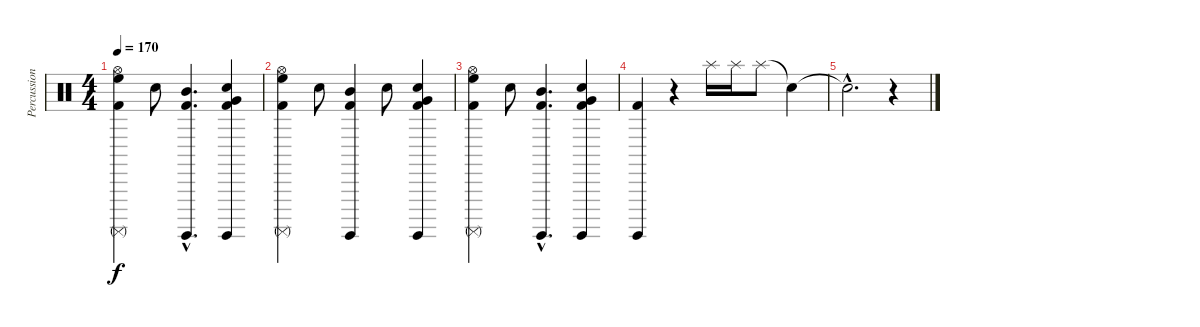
\track ("Percussion" "Percussion") {instrument percussion}
\staff {score}
\articulation defaults
\ts (4 4)
\tempo 170
\clef neutral
\ks c
("Hi-Hat (open)" "High Floor Tom (hit)" "Surdo (mute)" "Kick (hit) 2").4{dy f} "Hand Clap (hit)".8 ("Mid Tom (hit)"{hac} "Surdo (hit)"{hac} "Kick (hit) 2"{hac}).4{d} ("Hand Clap (hit)" "Very Low Tom (hit)" "Surdo (hit)" "Kick (hit) 2").4 |
("Hi-Hat (open)" "High Floor Tom (hit)" "Surdo (mute)" "Kick (hit) 2").4 "Hand Clap (hit)".8 ("Mid Tom (hit)" "Surdo (hit)" "Kick (hit) 2").4 "Hand Clap (hit)".8 ("Hand Clap (hit)" "Very Low Tom (hit)" "Surdo (hit)" "Kick (hit) 2").4 |
("Hi-Hat (open)" "High Floor Tom (hit)" "Surdo (mute)" "Kick (hit) 2").4 "Hand Clap (hit)".8 ("Mid Tom (hit)"{hac} "Surdo (hit)"{hac} "Kick (hit) 2"{hac}).4{d} ("Hand Clap (hit)" "Very Low Tom (hit)" "Surdo (hit)" "Kick (hit) 2").4 |
("Surdo (hit)" "Kick (hit) 2").4 r.4 "Splash (hit)".16 "Splash (hit)".16 "Splash (hit)".8 "Snare (hit)"{t}.4 |
"Snare (hit)"{hac t}.2{d} r.4
